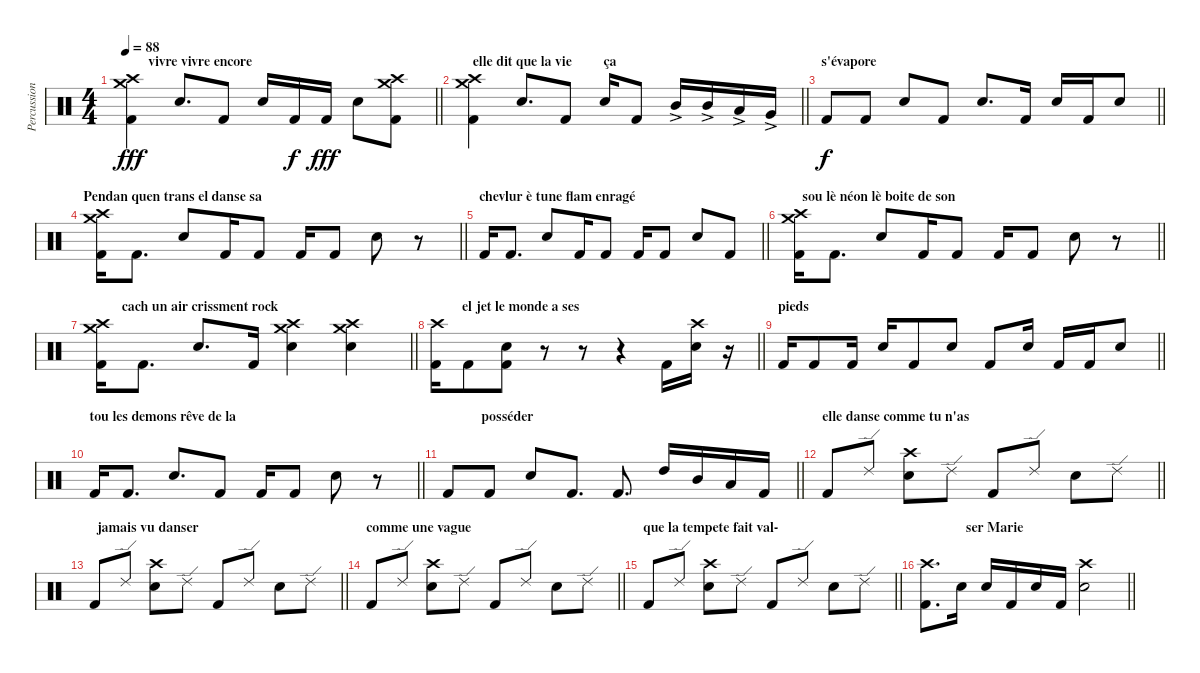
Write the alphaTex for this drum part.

\track ("Percussions" "Percussion") {instrument percussion}
\staff {score}
\articulation defaults
\ts (4 4)
\section ("" "          vivre vivre encore")
\tempo 88
\clef neutral
\barLineRight lightlight
\ks c
("Crash medium (hit)" "Crash high (hit)" "Kick (hit) 2").4{dy fff} "Snare (hit) 2".8{d} "Kick (hit) 2".8 "Snare (hit) 2".16 "Kick (hit) 2".16{dy f} "Kick (hit) 2".16{dy fff} "Snare (hit) 2".8 ("Crash medium (hit)" "Crash high (hit)" "Kick (hit) 2").8 |
\section ("" "     elle dit que la vie         ça")
\barLineRight lightlight
("Crash medium (hit)" "Crash high (hit)" "Kick (hit) 2").4 "Snare (hit) 2".8{d} "Kick (hit) 2".8 "Snare (hit) 2".16 "Kick (hit) 2".8 "Mid Tom (hit)"{ac}.16 "Mid Tom (hit)"{ac}.16 "Low Tom (hit)"{ac}.16 "Very Low Tom (hit)"{ac}.16 |
\section ("" "s'évapore")
\barLineRight lightlight "Kick (hit) 2".8{dy f} "Kick (hit) 2".8 "Snare (hit) 2".8 "Kick (hit) 2".8 "Snare (hit) 2".8{d} "Kick (hit) 2".16 "Snare (hit) 2".16 "Kick (hit) 2".16 "Snare (hit) 2".8
|
\section ("" "Pendan quen trans el danse sa ")
\barLineRight lightlight
("Crash medium (hit)" "Crash high (hit)" "Kick (hit) 2").16 "Kick (hit) 2".8{d} "Snare (hit) 2".8 "Kick (hit) 2".16 "Kick (hit) 2".8 "Kick (hit) 2".16 "Kick (hit) 2".8 "Snare (hit) 2".8 r.8 |
\section ("" "chevlur è tune flam enragé")
\barLineRight lightlight "Kick (hit) 2".16 "Kick (hit) 2".8{d} "Snare (hit) 2".8 "Kick (hit) 2".16 "Kick (hit) 2".8 "Kick (hit) 2".16 "Kick (hit) 2".8 "Snare (hit) 2".8 "Kick (hit) 2".8
|
\section ("" "      sou lè néon lè boite de son")
\barLineRight lightlight
("Crash medium (hit)" "Crash high (hit)" "Kick (hit) 2").16 "Kick (hit) 2".8{d} "Snare (hit) 2".8 "Kick (hit) 2".16 "Kick (hit) 2".8 "Kick (hit) 2".16 "Kick (hit) 2".8 "Snare (hit) 2".8 r.8 |
\section ("" "           cach un air crissment rock")
\barLineRight lightlight
("Crash medium (hit)" "Crash high (hit)" "Kick (hit) 2").16 "Kick (hit) 2".8{d} "Snare (hit) 2".8{d} "Kick (hit) 2".16 ("Crash medium (hit)" "Crash high (hit)" "Snare (hit) 2").4 ("Crash medium (hit)" "Crash high (hit)" "Snare (hit) 2").4 |
\section ("" "         el jet le monde a ses")
\barLineRight lightlight
("Crash high (hit)" "Kick (hit) 2").16 "Kick (hit) 2".8 ("Snare (hit) 2" "Kick (hit) 2").8 r.8 r.8 r.4 "Kick (hit) 2".16 ("Crash high (hit)" "Snare (hit) 2").16 r.16 |
\section ("" "pieds")
\barLineRight lightlight "Kick (hit) 2".16 "Kick (hit) 2".8 "Kick (hit) 2".16 "Snare (hit) 2".16 "Kick (hit) 2".8 "Snare (hit) 2".8 "Kick (hit) 2".8 "Snare (hit) 2".16 "Kick (hit) 2".16 "Kick (hit) 2".16 "Snare (hit) 2".8
|
\section ("" "tou les demons rêve de la ")
\barLineRight lightlight "Kick (hit) 2".16 "Kick (hit) 2".8{d} "Snare (hit) 2".8{d} "Kick (hit) 2".8 "Kick (hit) 2".16 "Kick (hit) 2".8 "Snare (hit) 2".8
r.8 |
\section ("" "           posséder")
\barLineRight lightlight "Kick (hit) 2".8 "Kick (hit) 2".8 "Snare (hit) 2".8 "Kick (hit) 2".8{d} "Kick (hit) 2".8{d} "High Tom (hit)".16 "Mid Tom (hit)".16 "Low Tom (hit)".16 "Kick (hit) 2".16
|
\section ("" "elle danse comme tu n'as")
\barLineRight lightlight "Kick (hit) 2".8 "Ride (edge) 2".8
("Crash high (hit)" "Snare (hit) 2").8 "Ride (edge) 2".8 "Kick (hit) 2".8 "Ride (edge) 2".8 "Snare (hit) 2".8 "Ride (edge) 2".8 |
\section ("" "  jamais vu danser")
\barLineRight lightlight "Kick (hit) 2".8 "Ride (edge) 2".8
("Crash high (hit)" "Snare (hit) 2").8 "Ride (edge) 2".8 "Kick (hit) 2".8 "Ride (edge) 2".8 "Snare (hit) 2".8 "Ride (edge) 2".8 |
\section ("" "comme une vague")
\barLineRight lightlight "Kick (hit) 2".8 "Ride (edge) 2".8
("Crash high (hit)" "Snare (hit) 2").8 "Ride (edge) 2".8 "Kick (hit) 2".8 "Ride (edge) 2".8 "Snare (hit) 2".8 "Ride (edge) 2".8 |
\section ("" "que la tempete fait val-")
\barLineRight lightlight "Kick (hit) 2".8 "Ride (edge) 2".8
("Crash high (hit)" "Snare (hit) 2").8 "Ride (edge) 2".8 "Kick (hit) 2".8 "Ride (edge) 2".8 "Snare (hit) 2".8 "Ride (edge) 2".8 |
\section ("" "             ser Marie")
\barLineRight lightlight
("Crash high (hit)" "Kick (hit) 2").8{d} "Snare (hit) 2".16 "Snare (hit) 2".16 "Kick (hit) 2".16 "Snare (hit) 2".16 "Kick (hit) 2".16 ("Crash high (hit)" "Snare (hit) 2").2
